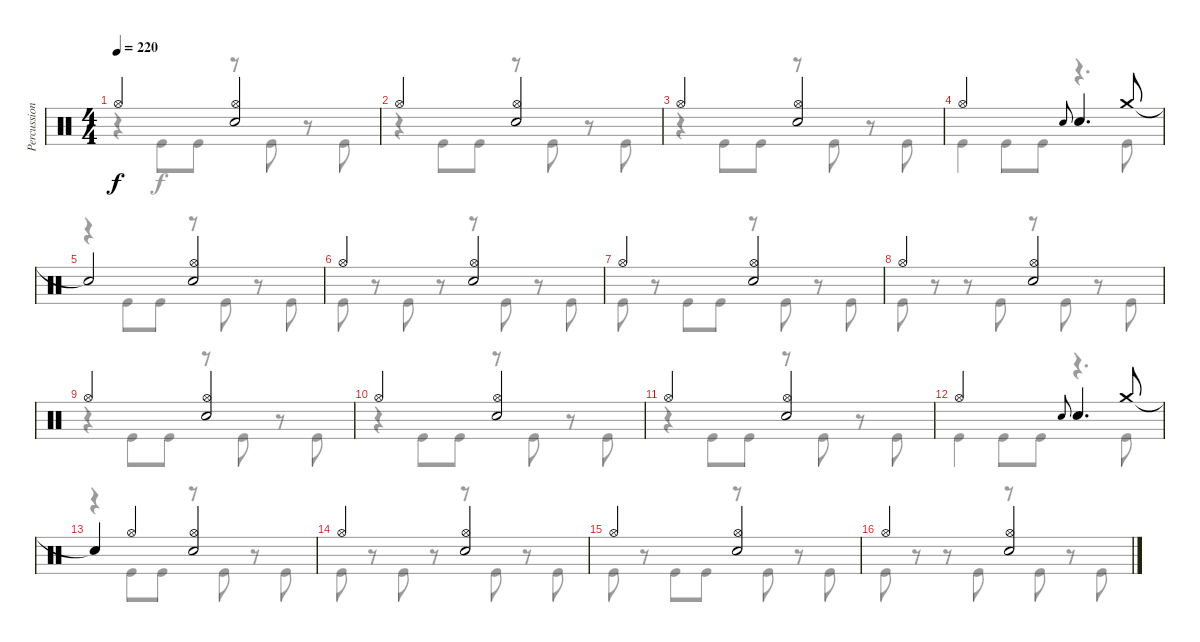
\track ("Percussion" "Percussion") {instrument percussion}
\staff {score}
\articulation defaults
\voice
\ts (4 4)
\tempo 220
\clef neutral
\ks c "Hi-Hat (open)".2{dy f}
("Hi-Hat (open)" "Electric Snare (hit)").2 |
"Hi-Hat (open)".2 ("Hi-Hat (open)" "Electric Snare (hit)").2 |
"Hi-Hat (open)".2 ("Hi-Hat (open)" "Electric Snare (hit)").2 |
"Hi-Hat (open)".2 "Electric Snare (hit)".8{gr onbeat} "Electric Snare (hit)".4{d} "Crash medium (hit)".8 |
"Snare (hit)"{t}.2 ("Hi-Hat (open)" "Electric Snare (hit)").2 |
"Hi-Hat (open)".2 ("Hi-Hat (open)" "Electric Snare (hit)").2 |
"Hi-Hat (open)".2 ("Hi-Hat (open)" "Electric Snare (hit)").2 |
"Hi-Hat (open)".2 ("Hi-Hat (open)" "Electric Snare (hit)").2 |
"Hi-Hat (open)".2 ("Hi-Hat (open)" "Electric Snare (hit)").2 |
"Hi-Hat (open)".2 ("Hi-Hat (open)" "Electric Snare (hit)").2 |
"Hi-Hat (open)".2 ("Hi-Hat (open)" "Electric Snare (hit)").2 |
"Hi-Hat (open)".2 "Electric Snare (hit)".8{gr onbeat} "Electric Snare (hit)".4{d} "Crash medium (hit)".8 |
"Snare (hit)"{t}.4 "Hi-Hat (open)".4 ("Hi-Hat (open)" "Electric Snare (hit)").2 |
"Hi-Hat (open)".2 ("Hi-Hat (open)" "Electric Snare (hit)").2 |
"Hi-Hat (open)".2 ("Hi-Hat (open)" "Electric Snare (hit)").2 |
"Hi-Hat (open)".2 ("Hi-Hat (open)" "Electric Snare (hit)").2
\voice
\clef neutral
\ottava regular
\simile none
\ks c
r.4{dy f} "Kick (hit)".8 "Kick (hit)".8 r.8 "Kick (hit)".8 r.8 "Kick (hit)".8 |
r.4 "Kick (hit)".8 "Kick (hit)".8 r.8 "Kick (hit)".8 r.8 "Kick (hit)".8 |
r.4 "Kick (hit)".8 "Kick (hit)".8 r.8 "Kick (hit)".8 r.8 "Kick (hit)".8 |
"Kick (hit)".4 "Kick (hit)".8 "Kick (hit)".8 r.4{d} "Kick (hit)".8 |
r.4 "Kick (hit)".8 "Kick (hit)".8 r.8 "Kick (hit)".8 r.8 "Kick (hit)".8 |
"Kick (hit)".8 r.8 "Kick (hit)".8 r.8 r.8 "Kick (hit)".8 r.8 "Kick (hit)".8 |
"Kick (hit)".8 r.8 "Kick (hit)".8 "Kick (hit)".8 r.8 "Kick (hit)".8 r.8 "Kick (hit)".8 |
"Kick (hit)".8 r.8 r.8 "Kick (hit)".8 r.8 "Kick (hit)".8 r.8 "Kick (hit)".8 |
r.4 "Kick (hit)".8 "Kick (hit)".8 r.8 "Kick (hit)".8 r.8 "Kick (hit)".8 |
r.4 "Kick (hit)".8 "Kick (hit)".8 r.8 "Kick (hit)".8 r.8 "Kick (hit)".8 |
r.4 "Kick (hit)".8 "Kick (hit)".8 r.8 "Kick (hit)".8 r.8 "Kick (hit)".8 |
"Kick (hit)".4 "Kick (hit)".8 "Kick (hit)".8 r.4{d} "Kick (hit)".8 |
r.4 "Kick (hit)".8 "Kick (hit)".8 r.8 "Kick (hit)".8 r.8 "Kick (hit)".8 |
"Kick (hit)".8 r.8 "Kick (hit)".8 r.8 r.8 "Kick (hit)".8 r.8 "Kick (hit)".8 |
"Kick (hit)".8 r.8 "Kick (hit)".8 "Kick (hit)".8 r.8 "Kick (hit)".8 r.8 "Kick (hit)".8 |
"Kick (hit)".8 r.8 r.8 "Kick (hit)".8 r.8 "Kick (hit)".8 r.8 "Kick (hit)".8
